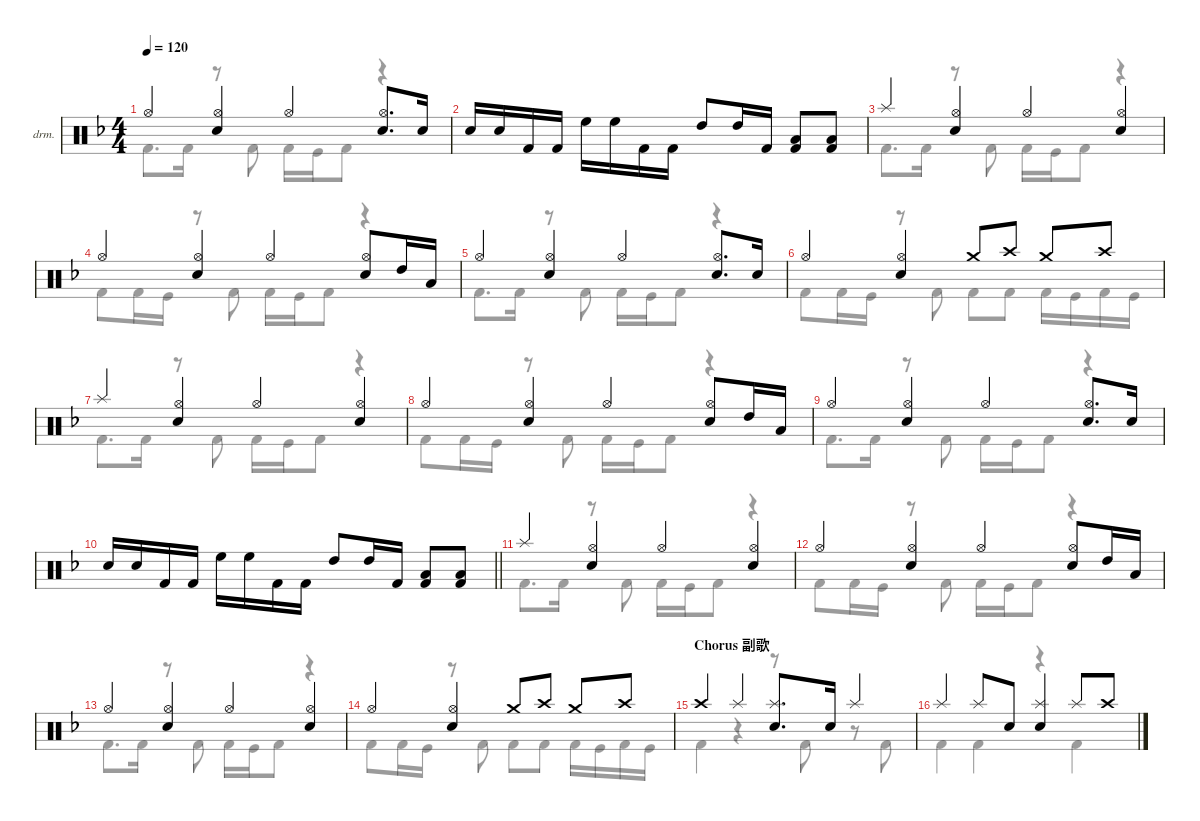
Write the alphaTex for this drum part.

\defaultSystemsLayout 4
\hideDynamics
\bracketExtendMode nobrackets
\firstSystemTrackNameOrientation horizontal
\track ("Drumkit" "drm.") {defaultSystemsLayout 4 instrument percussion}
\staff {score}
\articulation defaults
\voice
\ts (4 4)
\tempo 120
\clef neutral
\ks dminor "Hi-Hat (open)"{acc forcenatural}.4{dy mf beam Up}
("Hi-Hat (open)"{acc forcenatural} "Snare (hit) 2"{acc forcenatural}).4{beam Up} "Hi-Hat (open)"{acc forcenatural}.4{beam Up} ("Hi-Hat (open)"{acc forcenatural} "Snare (hit) 2"{acc forcenatural}).8{d beam Up} "Snare (hit) 2"{acc forcenatural}.16{beam Up} |
"Snare (hit) 2"{acc forcenatural}.16{beam Up} "Snare (hit) 2"{acc forcenatural}.16{beam Up} "Kick (hit) 2"{acc forcenatural}.16{beam Up} "Kick (hit) 2"{acc forcenatural}.16{beam Up} "High Floor Tom (hit)"{acc forcenatural}.16{beam Down} "High Floor Tom (hit)"{acc forcenatural}.16{beam Down} "Kick (hit) 2"{acc forcenatural}.16{beam Down} "Kick (hit) 2"{acc forcenatural}.16{beam Down} "High Tom (hit)"{acc forcenatural}.8{beam Up} "High Tom (hit)"{acc forcenatural}.16{beam Up} "Kick (hit) 2"{acc forcenatural}.16{beam Up} ("Low Tom (hit)"{acc forcenatural} "Kick (hit) 2"{acc forcenatural}).8{beam Up} ("Low Tom (hit)"{acc forcenatural} "Kick (hit) 2"{acc forcenatural}).8{beam Up} |
"Splash (hit)"{acc forcenatural}.4{beam Up} ("Hi-Hat (open)"{acc forcenatural} "Snare (hit) 2"{acc forcenatural}).4{beam Up} "Hi-Hat (open)"{acc forcenatural}.4{beam Up} ("Hi-Hat (open)"{acc forcenatural} "Snare (hit) 2"{acc forcenatural}).4{beam Up} |
"Hi-Hat (open)"{acc forcenatural}.4{beam Up} ("Hi-Hat (open)"{acc forcenatural} "Snare (hit) 2"{acc forcenatural}).4{beam Up} "Hi-Hat (open)"{acc forcenatural}.4{beam Up} ("Hi-Hat (open)"{acc forcenatural} "Snare (hit) 2"{acc forcenatural}).8{beam Up} "High Tom (hit)"{acc forcenatural}.16{beam Up} "Low Tom (hit)"{acc forcenatural}.16{beam Up} |
"Hi-Hat (open)"{acc forcenatural}.4{beam Up} ("Hi-Hat (open)"{acc forcenatural} "Snare (hit) 2"{acc forcenatural}).4{beam Up} "Hi-Hat (open)"{acc forcenatural}.4{beam Up} ("Hi-Hat (open)"{acc forcenatural} "Snare (hit) 2"{acc forcenatural}).8{d beam Up} "Snare (hit) 2"{acc forcenatural}.16{beam Up} |
"Hi-Hat (open)"{acc forcenatural}.4{beam Up} ("Hi-Hat (open)"{acc forcenatural} "Snare (hit) 2"{acc forcenatural}).4{beam Up} "Crash medium (hit)"{acc forcenatural}.8{beam Up} "Crash high (hit)"{acc forcenatural}.8{beam Up} "Crash medium (hit)"{acc forcenatural}.8{beam Up} "Crash high (hit)"{acc forcenatural}.8{beam Up} |
"Splash (hit)"{acc forcenatural}.4{beam Up} ("Hi-Hat (open)"{acc forcenatural} "Snare (hit) 2"{acc forcenatural}).4{beam Up} "Hi-Hat (open)"{acc forcenatural}.4{beam Up} ("Hi-Hat (open)"{acc forcenatural} "Snare (hit) 2"{acc forcenatural}).4{beam Up} |
"Hi-Hat (open)"{acc forcenatural}.4{beam Up} ("Hi-Hat (open)"{acc forcenatural} "Snare (hit) 2"{acc forcenatural}).4{beam Up} "Hi-Hat (open)"{acc forcenatural}.4{beam Up} ("Hi-Hat (open)"{acc forcenatural} "Snare (hit) 2"{acc forcenatural}).8{beam Up} "High Tom (hit)"{acc forcenatural}.16{beam Up} "Low Tom (hit)"{acc forcenatural}.16{beam Up} |
"Hi-Hat (open)"{acc forcenatural}.4{beam Up} ("Hi-Hat (open)"{acc forcenatural} "Snare (hit) 2"{acc forcenatural}).4{beam Up} "Hi-Hat (open)"{acc forcenatural}.4{beam Up} ("Hi-Hat (open)"{acc forcenatural} "Snare (hit) 2"{acc forcenatural}).8{d beam Up} "Snare (hit) 2"{acc forcenatural}.16{beam Up} |
\barLineRight lightlight "Snare (hit) 2"{acc forcenatural}.16{beam Up} "Snare (hit) 2"{acc forcenatural}.16{beam Up} "Kick (hit) 2"{acc forcenatural}.16{beam Up} "Kick (hit) 2"{acc forcenatural}.16{beam Up} "High Floor Tom (hit)"{acc forcenatural}.16{beam Down} "High Floor Tom (hit)"{acc forcenatural}.16{beam Down} "Kick (hit) 2"{acc forcenatural}.16{beam Down} "Kick (hit) 2"{acc forcenatural}.16{beam Down} "High Tom (hit)"{acc forcenatural}.8{beam Up} "High Tom (hit)"{acc forcenatural}.16{beam Up} "Kick (hit) 2"{acc forcenatural}.16{beam Up}
("Low Tom (hit)"{acc forcenatural} "Kick (hit) 2"{acc forcenatural}).8{beam Up} ("Low Tom (hit)"{acc forcenatural} "Kick (hit) 2"{acc forcenatural}).8{beam Up} |
"Splash (hit)"{acc forcenatural}.4{beam Up} ("Hi-Hat (open)"{acc forcenatural} "Snare (hit) 2"{acc forcenatural}).4{beam Up} "Hi-Hat (open)"{acc forcenatural}.4{beam Up} ("Hi-Hat (open)"{acc forcenatural} "Snare (hit) 2"{acc forcenatural}).4{beam Up} |
"Hi-Hat (open)"{acc forcenatural}.4{beam Up} ("Hi-Hat (open)"{acc forcenatural} "Snare (hit) 2"{acc forcenatural}).4{beam Up} "Hi-Hat (open)"{acc forcenatural}.4{beam Up} ("Hi-Hat (open)"{acc forcenatural} "Snare (hit) 2"{acc forcenatural}).8{beam Up} "High Tom (hit)"{acc forcenatural}.16{beam Up} "Low Tom (hit)"{acc forcenatural}.16{beam Up} |
"Hi-Hat (open)"{acc forcenatural}.4{beam Up} ("Hi-Hat (open)"{acc forcenatural} "Snare (hit) 2"{acc forcenatural}).4{beam Up} "Hi-Hat (open)"{acc forcenatural}.4{beam Up} ("Hi-Hat (open)"{acc forcenatural} "Snare (hit) 2"{acc forcenatural}).4{beam Up} |
"Hi-Hat (open)"{acc forcenatural}.4{beam Up} ("Hi-Hat (open)"{acc forcenatural} "Snare (hit) 2"{acc forcenatural}).4{beam Up} "Crash medium (hit)"{acc forcenatural}.8{beam Up} "Crash high (hit)"{acc forcenatural}.8{beam Up} "Crash medium (hit)"{acc forcenatural}.8{beam Up} "Crash high (hit)"{acc forcenatural}.8{beam Up} |
\section ("" "Chorus 副歌")
"Crash high (hit)"{acc forcenatural}.4{beam Up} "Splash (hit)"{acc forcenatural}.4{beam Up} ("Snare (hit) 2"{acc forcenatural} "Splash (hit)"{acc forcenatural}).8{d beam Up} "Snare (hit) 2"{acc forcenatural}.16{beam Up} "Splash (hit)"{acc forcenatural}.4{beam Up} |
"Splash (hit)"{acc forcenatural}.4{beam Up} "Splash (hit)"{acc forcenatural}.8{beam Up} "Snare (hit) 2"{acc forcenatural}.8{beam Up} ("Snare (hit) 2"{acc forcenatural} "Splash (hit)"{acc forcenatural}).4{beam Up} "Splash (hit)"{acc forcenatural}.8{beam Up} "Crash high (hit)"{acc forcenatural}.8{beam Up}
\voice
\clef neutral
\ottava regular
\simile none
\ks dminor "Kick (hit) 2"{acc forcenatural}.8{d dy mf beam Down} "Kick (hit) 2"{acc forcenatural}.16{beam Down}
r.8{beam Down} "Kick (hit) 2"{acc forcenatural}.8{beam Down} "Kick (hit) 2"{acc forcenatural}.16{beam Down} "Kick (hit)"{acc forcenatural}.16{beam Down} "Kick (hit) 2"{acc forcenatural}.8{beam Down} r.4{beam Down} |
|
"Kick (hit) 2"{acc forcenatural}.8{d beam Down} "Kick (hit) 2"{acc forcenatural}.16{beam Down} r.8{beam Down} "Kick (hit) 2"{acc forcenatural}.8{beam Down} "Kick (hit) 2"{acc forcenatural}.16{beam Down} "Kick (hit)"{acc forcenatural}.16{beam Down} "Kick (hit) 2"{acc forcenatural}.8{beam Down} r.4{beam Down} |
"Kick (hit) 2"{acc forcenatural}.8{beam Down} "Kick (hit) 2"{acc forcenatural}.16{beam Down} "Kick (hit)"{acc forcenatural}.16{beam Down} r.8{beam Down} "Kick (hit) 2"{acc forcenatural}.8{beam Down} "Kick (hit) 2"{acc forcenatural}.16{beam Down} "Kick (hit)"{acc forcenatural}.16{beam Down} "Kick (hit) 2"{acc forcenatural}.8{beam Down} r.4{beam Down} |
"Kick (hit) 2"{acc forcenatural}.8{d beam Down} "Kick (hit) 2"{acc forcenatural}.16{beam Down} r.8{beam Down} "Kick (hit) 2"{acc forcenatural}.8{beam Down} "Kick (hit) 2"{acc forcenatural}.16{beam Down} "Kick (hit)"{acc forcenatural}.16{beam Down} "Kick (hit) 2"{acc forcenatural}.8{beam Down} r.4{beam Down} |
"Kick (hit) 2"{acc forcenatural}.8{beam Down} "Kick (hit) 2"{acc forcenatural}.16{beam Down} "Kick (hit)"{acc forcenatural}.16{beam Down} r.8{beam Down} "Kick (hit) 2"{acc forcenatural}.8{beam Down} "Kick (hit) 2"{acc forcenatural}.8{beam Down} "Kick (hit) 2"{acc forcenatural}.8{beam Down} "Kick (hit) 2"{acc forcenatural}.16{beam Down} "Kick (hit)"{acc forcenatural}.16{beam Down} "Kick (hit) 2"{acc forcenatural}.16{beam Down} "Kick (hit)"{acc forcenatural}.16{beam Down} |
"Kick (hit) 2"{acc forcenatural}.8{d beam Down} "Kick (hit) 2"{acc forcenatural}.16{beam Down} r.8{beam Down} "Kick (hit) 2"{acc forcenatural}.8{beam Down} "Kick (hit) 2"{acc forcenatural}.16{beam Down} "Kick (hit)"{acc forcenatural}.16{beam Down} "Kick (hit) 2"{acc forcenatural}.8{beam Down} r.4{beam Down} |
"Kick (hit) 2"{acc forcenatural}.8{beam Down} "Kick (hit) 2"{acc forcenatural}.16{beam Down} "Kick (hit)"{acc forcenatural}.16{beam Down} r.8{beam Down} "Kick (hit) 2"{acc forcenatural}.8{beam Down} "Kick (hit) 2"{acc forcenatural}.16{beam Down} "Kick (hit)"{acc forcenatural}.16{beam Down} "Kick (hit) 2"{acc forcenatural}.8{beam Down} r.4{beam Down} |
"Kick (hit) 2"{acc forcenatural}.8{d beam Down} "Kick (hit) 2"{acc forcenatural}.16{beam Down} r.8{beam Down} "Kick (hit) 2"{acc forcenatural}.8{beam Down} "Kick (hit) 2"{acc forcenatural}.16{beam Down} "Kick (hit)"{acc forcenatural}.16{beam Down} "Kick (hit) 2"{acc forcenatural}.8{beam Down} r.4{beam Down} |
\barLineRight lightlight
|
"Kick (hit) 2"{acc forcenatural}.8{d beam Down} "Kick (hit) 2"{acc forcenatural}.16{beam Down} r.8{beam Down} "Kick (hit) 2"{acc forcenatural}.8{beam Down} "Kick (hit) 2"{acc forcenatural}.16{beam Down} "Kick (hit)"{acc forcenatural}.16{beam Down} "Kick (hit) 2"{acc forcenatural}.8{beam Down} r.4{beam Down} |
"Kick (hit) 2"{acc forcenatural}.8{beam Down} "Kick (hit) 2"{acc forcenatural}.16{beam Down} "Kick (hit)"{acc forcenatural}.16{beam Down} r.8{beam Down} "Kick (hit) 2"{acc forcenatural}.8{beam Down} "Kick (hit) 2"{acc forcenatural}.16{beam Down} "Kick (hit)"{acc forcenatural}.16{beam Down} "Kick (hit) 2"{acc forcenatural}.8{beam Down} r.4{beam Down} |
"Kick (hit) 2"{acc forcenatural}.8{d beam Down} "Kick (hit) 2"{acc forcenatural}.16{beam Down} r.8{beam Down} "Kick (hit) 2"{acc forcenatural}.8{beam Down} "Kick (hit) 2"{acc forcenatural}.16{beam Down} "Kick (hit)"{acc forcenatural}.16{beam Down} "Kick (hit) 2"{acc forcenatural}.8{beam Down} r.4{beam Down} |
"Kick (hit) 2"{acc forcenatural}.8{beam Down} "Kick (hit) 2"{acc forcenatural}.16{beam Down} "Kick (hit)"{acc forcenatural}.16{beam Down} r.8{beam Down} "Kick (hit) 2"{acc forcenatural}.8{beam Down} "Kick (hit) 2"{acc forcenatural}.8{beam Down} "Kick (hit) 2"{acc forcenatural}.8{beam Down} "Kick (hit) 2"{acc forcenatural}.16{beam Down} "Kick (hit)"{acc forcenatural}.16{beam Down} "Kick (hit) 2"{acc forcenatural}.16{beam Down} "Kick (hit)"{acc forcenatural}.16{beam Down} |
"Kick (hit) 2"{acc forcenatural}.4{beam Down} r.4{beam Down} r.8{beam Down} "Kick (hit) 2"{acc forcenatural}.8{beam Down} r.8{beam Down} "Kick (hit) 2"{acc forcenatural}.8{beam Down} |
"Kick (hit) 2"{acc forcenatural}.4{beam Down} "Kick (hit) 2"{acc forcenatural}.4{beam Down} r.4{beam Down} "Kick (hit) 2"{acc forcenatural}.4{beam Down}
